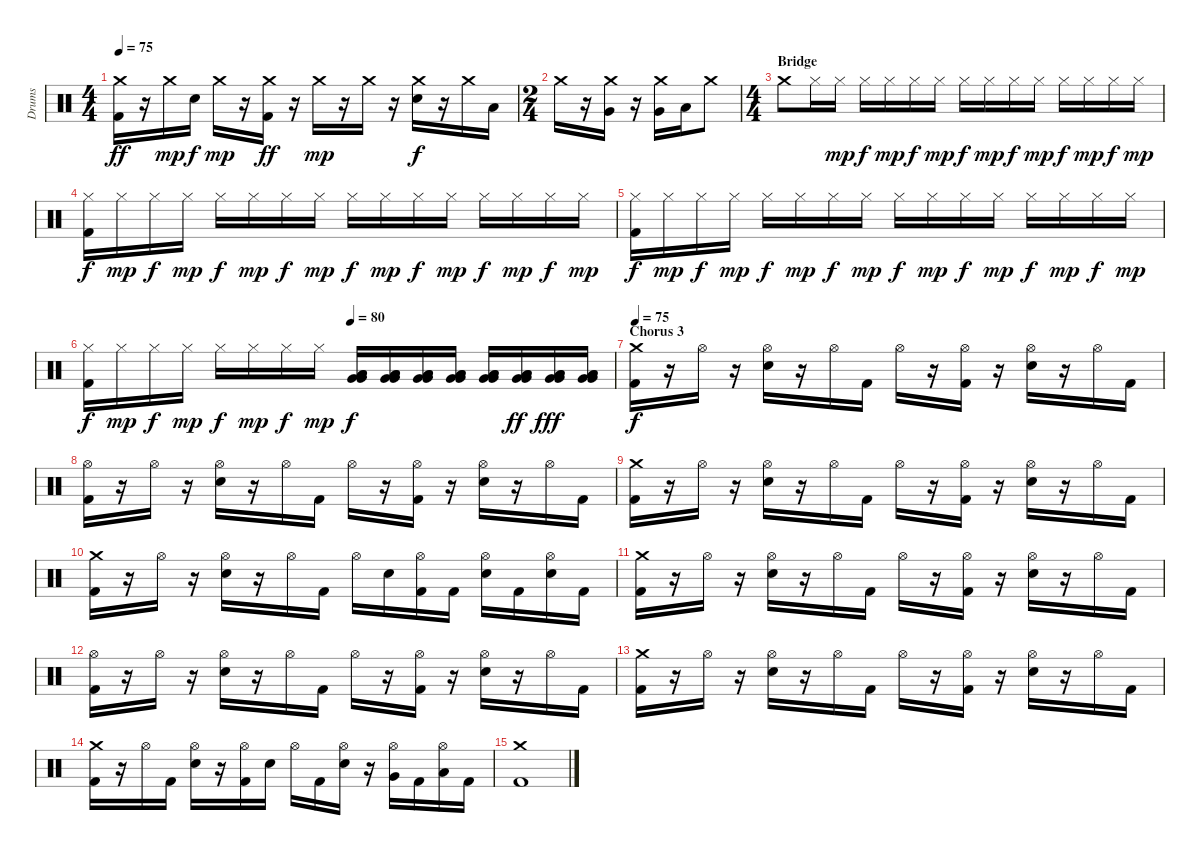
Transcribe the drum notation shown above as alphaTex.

\track ("Drums" "Drums") {instrument percussion}
\staff {score}
\articulation defaults
\ts (4 4)
\tempo 75
\clef neutral
\ks c
("Crash medium (hit)" "Kick (hit) 2").16{dy ff} r.16 "Crash medium (hit)".16{dy mp} "Snare (hit) 2".16{dy f} "Crash medium (hit)".16{dy mp} r.16 ("Crash medium (hit)" "Kick (hit) 2").16{dy ff} r.16 "Crash medium (hit)".16{dy mp} r.16 "Crash medium (hit)".16 r.16 ("Crash medium (hit)" "Snare (hit) 2").16{dy f} r.16 "Crash medium (hit)".16 "Low Tom (hit)".16 |
\ts (2 4)
"Crash medium (hit)".16 r.16 ("Crash medium (hit)" "Very Low Tom (hit)").16 r.16 ("Crash medium (hit)" "Very Low Tom (hit)").16 "Low Floor Tom (hit)".16 "Crash medium (hit)".8 |
\ts (4 4)
\section ("" "Bridge")
"Crash medium (hit)".8 "Hi-Hat (closed)".16 "Hi-Hat (closed)".16{dy mp} "Hi-Hat (closed)".16{dy f} "Hi-Hat (closed)".16{dy mp} "Hi-Hat (closed)".16{dy f} "Hi-Hat (closed)".16{dy mp} "Hi-Hat (closed)".16{dy f} "Hi-Hat (closed)".16{dy mp} "Hi-Hat (closed)".16{dy f} "Hi-Hat (closed)".16{dy mp} "Hi-Hat (closed)".16{dy f} "Hi-Hat (closed)".16{dy mp} "Hi-Hat (closed)".16{dy f} "Hi-Hat (closed)".16{dy mp} |
("Hi-Hat (closed)" "Kick (hit) 2").16{dy f} "Hi-Hat (closed)".16{dy mp} "Hi-Hat (closed)".16{dy f} "Hi-Hat (closed)".16{dy mp} "Hi-Hat (closed)".16{dy f} "Hi-Hat (closed)".16{dy mp} "Hi-Hat (closed)".16{dy f} "Hi-Hat (closed)".16{dy mp} "Hi-Hat (closed)".16{dy f} "Hi-Hat (closed)".16{dy mp} "Hi-Hat (closed)".16{dy f} "Hi-Hat (closed)".16{dy mp} "Hi-Hat (closed)".16{dy f} "Hi-Hat (closed)".16{dy mp} "Hi-Hat (closed)".16{dy f} "Hi-Hat (closed)".16{dy mp} |
("Hi-Hat (closed)" "Kick (hit) 2").16{dy f} "Hi-Hat (closed)".16{dy mp} "Hi-Hat (closed)".16{dy f} "Hi-Hat (closed)".16{dy mp} "Hi-Hat (closed)".16{dy f} "Hi-Hat (closed)".16{dy mp} "Hi-Hat (closed)".16{dy f} "Hi-Hat (closed)".16{dy mp} "Hi-Hat (closed)".16{dy f} "Hi-Hat (closed)".16{dy mp} "Hi-Hat (closed)".16{dy f} "Hi-Hat (closed)".16{dy mp} "Hi-Hat (closed)".16{dy f} "Hi-Hat (closed)".16{dy mp} "Hi-Hat (closed)".16{dy f} "Hi-Hat (closed)".16{dy mp} |
\tempo (80 0.5)
("Hi-Hat (closed)" "Kick (hit) 2").16{dy f} "Hi-Hat (closed)".16{dy mp} "Hi-Hat (closed)".16{dy f} "Hi-Hat (closed)".16{dy mp} "Hi-Hat (closed)".16{dy f} "Hi-Hat (closed)".16{dy mp} "Hi-Hat (closed)".16{dy f} "Hi-Hat (closed)".16{dy mp} ("Very Low Tom (hit)" "Very Low Tom (hit)" "Low Floor Tom (hit)" "Low Floor Tom (hit)").16{dy f} ("Very Low Tom (hit)" "Very Low Tom (hit)" "Low Floor Tom (hit)" "Low Floor Tom (hit)").16 ("Very Low Tom (hit)" "Very Low Tom (hit)" "Low Floor Tom (hit)" "Low Floor Tom (hit)").16 ("Very Low Tom (hit)" "Very Low Tom (hit)" "Low Floor Tom (hit)" "Low Floor Tom (hit)").16 ("Very Low Tom (hit)" "Very Low Tom (hit)" "Low Floor Tom (hit)" "Low Floor Tom (hit)").16 ("Very Low Tom (hit)" "Very Low Tom (hit)" "Low Floor Tom (hit)" "Low Floor Tom (hit)").16{dy ff} ("Very Low Tom (hit)" "Very Low Tom (hit)" "Low Floor Tom (hit)" "Low Floor Tom (hit)").16{dy fff} ("Very Low Tom (hit)" "Very Low Tom (hit)" "Low Floor Tom (hit)" "Low Floor Tom (hit)").16 |
\section ("" "Chorus 3")
\tempo 75
("Crash medium (hit)" "Kick (hit) 2").16{dy f} r.16 "Hi-Hat (open)".16 r.16 ("Hi-Hat (open)" "Snare (hit) 2").16 r.16 "Hi-Hat (open)".16 "Kick (hit) 2".16 "Hi-Hat (open)".16 r.16 ("Hi-Hat (open)" "Kick (hit) 2").16 r.16 ("Hi-Hat (open)" "Snare (hit) 2").16 r.16 "Hi-Hat (open)".16 "Kick (hit) 2".16 |
("Hi-Hat (open)" "Kick (hit) 2").16 r.16 "Hi-Hat (open)".16 r.16 ("Hi-Hat (open)" "Snare (hit) 2").16 r.16 "Hi-Hat (open)".16 "Kick (hit) 2".16 "Hi-Hat (open)".16 r.16 ("Hi-Hat (open)" "Kick (hit) 2").16 r.16 ("Hi-Hat (open)" "Snare (hit) 2").16 r.16 "Hi-Hat (open)".16 "Kick (hit) 2".16 |
("Crash medium (hit)" "Kick (hit) 2").16 r.16 "Hi-Hat (open)".16 r.16 ("Hi-Hat (open)" "Snare (hit) 2").16 r.16 "Hi-Hat (open)".16 "Kick (hit) 2".16 "Hi-Hat (open)".16 r.16 ("Hi-Hat (open)" "Kick (hit) 2").16 r.16 ("Hi-Hat (open)" "Snare (hit) 2").16 r.16 "Hi-Hat (open)".16 "Kick (hit) 2".16 |
("Crash medium (hit)" "Kick (hit) 2").16 r.16 "Hi-Hat (open)".16 r.16 ("Hi-Hat (open)" "Snare (hit) 2").16 r.16 "Hi-Hat (open)".16 "Kick (hit) 2".16 "Hi-Hat (open)".16 "Snare (hit) 2".16 ("Hi-Hat (open)" "Kick (hit) 2").16 "Kick (hit) 2".16 ("Hi-Hat (open)" "Snare (hit) 2").16 "Kick (hit) 2".16 ("Hi-Hat (open)" "Snare (hit) 2").16 "Kick (hit) 2".16 |
("Crash medium (hit)" "Kick (hit) 2").16 r.16 "Hi-Hat (open)".16 r.16 ("Hi-Hat (open)" "Snare (hit) 2").16 r.16 "Hi-Hat (open)".16 "Kick (hit) 2".16 "Hi-Hat (open)".16 r.16 ("Hi-Hat (open)" "Kick (hit) 2").16 r.16 ("Hi-Hat (open)" "Snare (hit) 2").16 r.16 "Hi-Hat (open)".16 "Kick (hit) 2".16 |
("Hi-Hat (open)" "Kick (hit) 2").16 r.16 "Hi-Hat (open)".16 r.16 ("Hi-Hat (open)" "Snare (hit) 2").16 r.16 "Hi-Hat (open)".16 "Kick (hit) 2".16 "Hi-Hat (open)".16 r.16 ("Hi-Hat (open)" "Kick (hit) 2").16 r.16 ("Hi-Hat (open)" "Snare (hit) 2").16 r.16 "Hi-Hat (open)".16 "Kick (hit) 2".16 |
("Crash medium (hit)" "Kick (hit) 2").16 r.16 "Hi-Hat (open)".16 r.16 ("Hi-Hat (open)" "Snare (hit) 2").16 r.16 "Hi-Hat (open)".16 "Kick (hit) 2".16 "Hi-Hat (open)".16 r.16 ("Hi-Hat (open)" "Kick (hit) 2").16 r.16 ("Hi-Hat (open)" "Snare (hit) 2").16 r.16 "Hi-Hat (open)".16 "Kick (hit) 2".16 |
("Crash medium (hit)" "Kick (hit) 2").16 r.16 "Hi-Hat (open)".16 "Kick (hit) 2".16 ("Hi-Hat (open)" "Snare (hit) 2").16 r.16 ("Hi-Hat (open)" "Kick (hit) 2").16 "Snare (hit) 2".16 "Hi-Hat (open)".16 "Kick (hit) 2".16 ("Hi-Hat (open)" "Snare (hit) 2").16 r.16 ("Hi-Hat (open)" "Very Low Tom (hit)").16 "Kick (hit) 2".16 ("Hi-Hat (open)" "Low Floor Tom (hit)").16 "Kick (hit) 2".16 |
("Crash medium (hit)" "Kick (hit) 2").1
